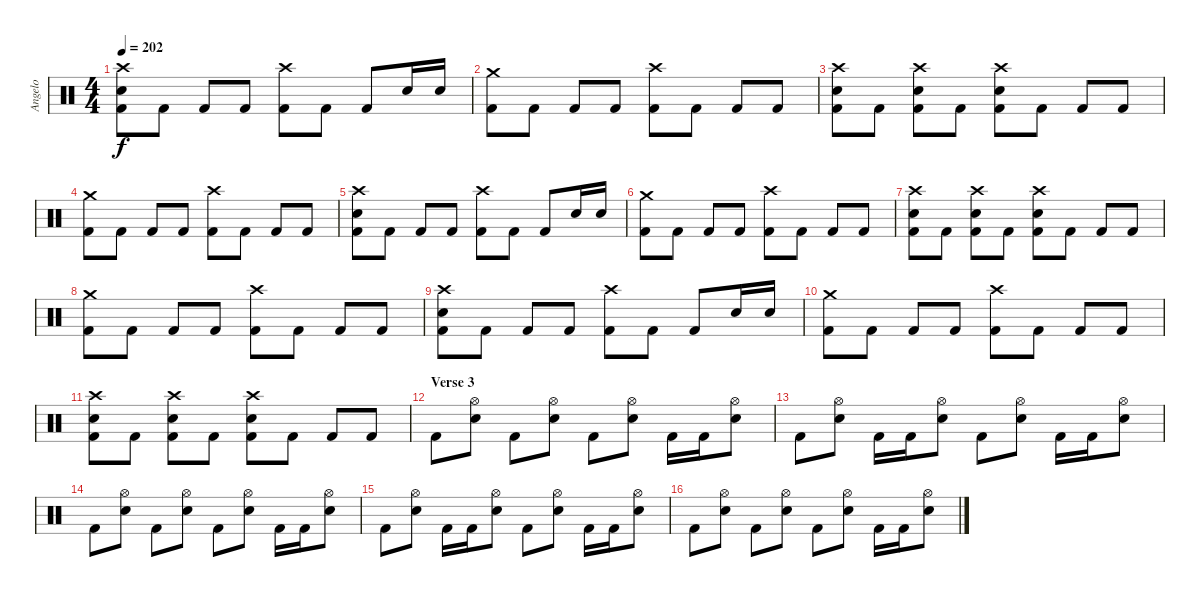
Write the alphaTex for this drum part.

\track ("Angelo" "Angelo") {instrument percussion}
\staff {score}
\articulation defaults
\ts (4 4)
\tempo 202
\clef neutral
\ks c
("Crash high (hit)" "Electric Snare (hit)" "Kick (hit) 2").8{dy f} "Kick (hit) 2".8 "Kick (hit) 2".8 "Kick (hit) 2".8 ("Crash high (hit)" "Kick (hit) 2").8 "Kick (hit) 2".8 "Kick (hit) 2".8 "Electric Snare (hit)".16 "Electric Snare (hit)".16 |
("Crash medium (hit)" "Kick (hit) 2").8 "Kick (hit) 2".8 "Kick (hit) 2".8 "Kick (hit) 2".8 ("Crash high (hit)" "Kick (hit) 2").8 "Kick (hit) 2".8 "Kick (hit) 2".8 "Kick (hit) 2".8 |
("Crash high (hit)" "Electric Snare (hit)" "Kick (hit) 2").8 "Kick (hit) 2".8 ("Crash high (hit)" "Electric Snare (hit)" "Kick (hit) 2").8 "Kick (hit) 2".8 ("Crash high (hit)" "Electric Snare (hit)" "Kick (hit) 2").8 "Kick (hit) 2".8 "Kick (hit) 2".8 "Kick (hit) 2".8 |
("Crash medium (hit)" "Kick (hit) 2").8 "Kick (hit) 2".8 "Kick (hit) 2".8 "Kick (hit) 2".8 ("Crash high (hit)" "Kick (hit) 2").8 "Kick (hit) 2".8 "Kick (hit) 2".8 "Kick (hit) 2".8 |
("Crash high (hit)" "Electric Snare (hit)" "Kick (hit) 2").8 "Kick (hit) 2".8 "Kick (hit) 2".8 "Kick (hit) 2".8 ("Crash high (hit)" "Kick (hit) 2").8 "Kick (hit) 2".8 "Kick (hit) 2".8 "Electric Snare (hit)".16 "Electric Snare (hit)".16 |
("Crash medium (hit)" "Kick (hit) 2").8 "Kick (hit) 2".8 "Kick (hit) 2".8 "Kick (hit) 2".8 ("Crash high (hit)" "Kick (hit) 2").8 "Kick (hit) 2".8 "Kick (hit) 2".8 "Kick (hit) 2".8 |
("Crash high (hit)" "Electric Snare (hit)" "Kick (hit) 2").8 "Kick (hit) 2".8 ("Crash high (hit)" "Electric Snare (hit)" "Kick (hit) 2").8 "Kick (hit) 2".8 ("Crash high (hit)" "Electric Snare (hit)" "Kick (hit) 2").8 "Kick (hit) 2".8 "Kick (hit) 2".8 "Kick (hit) 2".8 |
("Crash medium (hit)" "Kick (hit) 2").8 "Kick (hit) 2".8 "Kick (hit) 2".8 "Kick (hit) 2".8 ("Crash high (hit)" "Kick (hit) 2").8 "Kick (hit) 2".8 "Kick (hit) 2".8 "Kick (hit) 2".8 |
("Crash high (hit)" "Electric Snare (hit)" "Kick (hit) 2").8 "Kick (hit) 2".8 "Kick (hit) 2".8 "Kick (hit) 2".8 ("Crash high (hit)" "Kick (hit) 2").8 "Kick (hit) 2".8 "Kick (hit) 2".8 "Electric Snare (hit)".16 "Electric Snare (hit)".16 |
("Crash medium (hit)" "Kick (hit) 2").8 "Kick (hit) 2".8 "Kick (hit) 2".8 "Kick (hit) 2".8 ("Crash high (hit)" "Kick (hit) 2").8 "Kick (hit) 2".8 "Kick (hit) 2".8 "Kick (hit) 2".8 |
("Crash high (hit)" "Electric Snare (hit)" "Kick (hit) 2").8 "Kick (hit) 2".8 ("Crash high (hit)" "Electric Snare (hit)" "Kick (hit) 2").8 "Kick (hit) 2".8 ("Crash high (hit)" "Electric Snare (hit)" "Kick (hit) 2").8 "Kick (hit) 2".8 "Kick (hit) 2".8 "Kick (hit) 2".8 |
\section ("" "Verse 3")
"Kick (hit) 2".8 ("Hi-Hat (open)" "Electric Snare (hit)").8 "Kick (hit) 2".8 ("Hi-Hat (open)" "Electric Snare (hit)").8 "Kick (hit) 2".8 ("Hi-Hat (open)" "Electric Snare (hit)").8 "Kick (hit) 2".16 "Kick (hit) 2".16 ("Hi-Hat (open)" "Electric Snare (hit)").8 |
"Kick (hit) 2".8 ("Hi-Hat (open)" "Electric Snare (hit)").8 "Kick (hit) 2".16 "Kick (hit) 2".16 ("Hi-Hat (open)" "Electric Snare (hit)").8 "Kick (hit) 2".8 ("Hi-Hat (open)" "Electric Snare (hit)").8 "Kick (hit) 2".16 "Kick (hit) 2".16 ("Hi-Hat (open)" "Electric Snare (hit)").8 |
"Kick (hit) 2".8 ("Hi-Hat (open)" "Electric Snare (hit)").8 "Kick (hit) 2".8 ("Hi-Hat (open)" "Electric Snare (hit)").8 "Kick (hit) 2".8 ("Hi-Hat (open)" "Electric Snare (hit)").8 "Kick (hit) 2".16 "Kick (hit) 2".16 ("Hi-Hat (open)" "Electric Snare (hit)").8 |
"Kick (hit) 2".8 ("Hi-Hat (open)" "Electric Snare (hit)").8 "Kick (hit) 2".16 "Kick (hit) 2".16 ("Hi-Hat (open)" "Electric Snare (hit)").8 "Kick (hit) 2".8 ("Hi-Hat (open)" "Electric Snare (hit)").8 "Kick (hit) 2".16 "Kick (hit) 2".16 ("Hi-Hat (open)" "Electric Snare (hit)").8 |
"Kick (hit) 2".8 ("Hi-Hat (open)" "Electric Snare (hit)").8 "Kick (hit) 2".8 ("Hi-Hat (open)" "Electric Snare (hit)").8 "Kick (hit) 2".8 ("Hi-Hat (open)" "Electric Snare (hit)").8 "Kick (hit) 2".16 "Kick (hit) 2".16 ("Hi-Hat (open)" "Electric Snare (hit)").8
